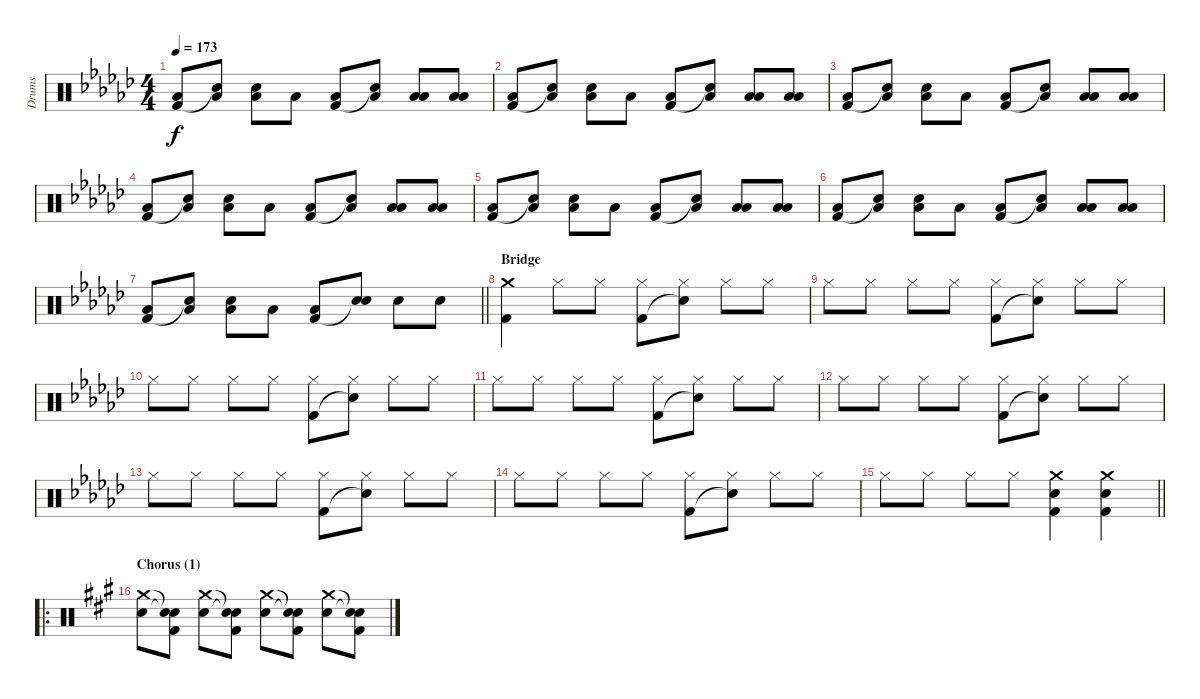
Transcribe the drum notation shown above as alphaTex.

\track ("Drums" "Drums") {instrument percussion}
\staff {score}
\articulation defaults
\ts (4 4)
\tempo 173
\clef neutral
\ks ebminor
("Low Floor Tom (hit)" "Kick (hit) 2").8{dy f} ("Low Floor Tom (hit)" "Snare (hit)"{t}).8 ("Electric Snare (hit)" "Low Floor Tom (hit)").8 "Low Floor Tom (hit)".8 ("Low Floor Tom (hit)" "Kick (hit) 2").8 ("Low Floor Tom (hit)" "Snare (hit)"{t}).8 ("Low Tom (hit)" "Low Floor Tom (hit)").8 ("Low Tom (hit)" "Low Floor Tom (hit)").8 |
("Low Floor Tom (hit)" "Kick (hit) 2").8 ("Low Floor Tom (hit)" "Snare (hit)"{t}).8 ("Electric Snare (hit)" "Low Floor Tom (hit)").8 "Low Floor Tom (hit)".8 ("Low Floor Tom (hit)" "Kick (hit) 2").8 ("Low Floor Tom (hit)" "Snare (hit)"{t}).8 ("Low Tom (hit)" "Low Floor Tom (hit)").8 ("Low Tom (hit)" "Low Floor Tom (hit)").8 |
("Low Floor Tom (hit)" "Kick (hit) 2").8 ("Low Floor Tom (hit)" "Snare (hit)"{t}).8 ("Electric Snare (hit)" "Low Floor Tom (hit)").8 "Low Floor Tom (hit)".8 ("Low Floor Tom (hit)" "Kick (hit) 2").8 ("Low Floor Tom (hit)" "Snare (hit)"{t}).8 ("Low Tom (hit)" "Low Floor Tom (hit)").8 ("Low Tom (hit)" "Low Floor Tom (hit)").8 |
("Low Floor Tom (hit)" "Kick (hit) 2").8 ("Low Floor Tom (hit)" "Snare (hit)"{t}).8 ("Electric Snare (hit)" "Low Floor Tom (hit)").8 "Low Floor Tom (hit)".8 ("Low Floor Tom (hit)" "Kick (hit) 2").8 ("Low Floor Tom (hit)" "Snare (hit)"{t}).8 ("Low Tom (hit)" "Low Floor Tom (hit)").8 ("Low Tom (hit)" "Low Floor Tom (hit)").8 |
("Low Floor Tom (hit)" "Kick (hit) 2").8 ("Low Floor Tom (hit)" "Snare (hit)"{t}).8 ("Electric Snare (hit)" "Low Floor Tom (hit)").8 "Low Floor Tom (hit)".8 ("Low Floor Tom (hit)" "Kick (hit) 2").8 ("Low Floor Tom (hit)" "Snare (hit)"{t}).8 ("Low Tom (hit)" "Low Floor Tom (hit)").8 ("Low Tom (hit)" "Low Floor Tom (hit)").8 |
("Low Floor Tom (hit)" "Kick (hit) 2").8 ("Low Floor Tom (hit)" "Snare (hit)"{t}).8 ("Electric Snare (hit)" "Low Floor Tom (hit)").8 "Low Floor Tom (hit)".8 ("Low Floor Tom (hit)" "Kick (hit) 2").8 ("Low Floor Tom (hit)" "Snare (hit)"{t}).8 ("Low Tom (hit)" "Low Floor Tom (hit)").8 ("Low Tom (hit)" "Low Floor Tom (hit)").8 |
\barLineRight lightlight
("Low Floor Tom (hit)" "Kick (hit) 2").8 ("Low Floor Tom (hit)" "Snare (hit)"{t}).8 ("Electric Snare (hit)" "Low Floor Tom (hit)").8 "Low Floor Tom (hit)".8 ("Low Floor Tom (hit)" "Kick (hit) 2").8 ("Electric Snare (hit)" "Snare (hit)"{t}).8 "Electric Snare (hit)".8 "Electric Snare (hit)".8 |
\section ("" "Bridge")
("Crash medium (hit)" "Kick (hit) 2").4 "Hi-Hat (closed)".8 "Hi-Hat (closed)".8 ("Hi-Hat (closed)" "Kick (hit) 2").8 ("Hi-Hat (closed)" "Snare (hit)"{t}).8 "Hi-Hat (closed)".8 "Hi-Hat (closed)".8 |
"Hi-Hat (closed)".8 "Hi-Hat (closed)".8 "Hi-Hat (closed)".8 "Hi-Hat (closed)".8 ("Hi-Hat (closed)" "Kick (hit) 2").8 ("Hi-Hat (closed)" "Snare (hit)"{t}).8 "Hi-Hat (closed)".8 "Hi-Hat (closed)".8 |
"Hi-Hat (closed)".8 "Hi-Hat (closed)".8 "Hi-Hat (closed)".8 "Hi-Hat (closed)".8 ("Hi-Hat (closed)" "Kick (hit) 2").8 ("Hi-Hat (closed)" "Snare (hit)"{t}).8 "Hi-Hat (closed)".8 "Hi-Hat (closed)".8 |
"Hi-Hat (closed)".8 "Hi-Hat (closed)".8 "Hi-Hat (closed)".8 "Hi-Hat (closed)".8 ("Hi-Hat (closed)" "Kick (hit) 2").8 ("Hi-Hat (closed)" "Snare (hit)"{t}).8 "Hi-Hat (closed)".8 "Hi-Hat (closed)".8 |
"Hi-Hat (closed)".8 "Hi-Hat (closed)".8 "Hi-Hat (closed)".8 "Hi-Hat (closed)".8 ("Hi-Hat (closed)" "Kick (hit) 2").8 ("Hi-Hat (closed)" "Snare (hit)"{t}).8 "Hi-Hat (closed)".8 "Hi-Hat (closed)".8 |
"Hi-Hat (closed)".8 "Hi-Hat (closed)".8 "Hi-Hat (closed)".8 "Hi-Hat (closed)".8 ("Hi-Hat (closed)" "Kick (hit) 2").8 ("Hi-Hat (closed)" "Snare (hit)"{t}).8 "Hi-Hat (closed)".8 "Hi-Hat (closed)".8 |
"Hi-Hat (closed)".8 "Hi-Hat (closed)".8 "Hi-Hat (closed)".8 "Hi-Hat (closed)".8 ("Hi-Hat (closed)" "Kick (hit) 2").8 ("Hi-Hat (closed)" "Snare (hit)"{t}).8 "Hi-Hat (closed)".8 "Hi-Hat (closed)".8 |
\barLineRight lightlight "Hi-Hat (closed)".8 "Hi-Hat (closed)".8 "Hi-Hat (closed)".8 "Hi-Hat (closed)".8
("Crash medium (hit)" "Electric Snare (hit)" "Kick (hit) 2").4 ("Crash medium (hit)" "Electric Snare (hit)" "Kick (hit) 2").4 |
\ro
\section ("" "Chorus (1)")
\ks f#minor
("Crash medium (hit)" "Electric Snare (hit)").8 ("Snare (hit)"{t} "Snare (hit)"{t} "Kick (hit) 2").8 ("Crash medium (hit)" "Electric Snare (hit)").8 ("Snare (hit)"{t} "Snare (hit)"{t} "Kick (hit) 2").8 ("Crash medium (hit)" "Electric Snare (hit)").8 ("Snare (hit)"{t} "Snare (hit)"{t} "Kick (hit) 2").8 ("Crash medium (hit)" "Electric Snare (hit)").8 ("Snare (hit)"{t} "Snare (hit)"{t} "Kick (hit) 2").8
